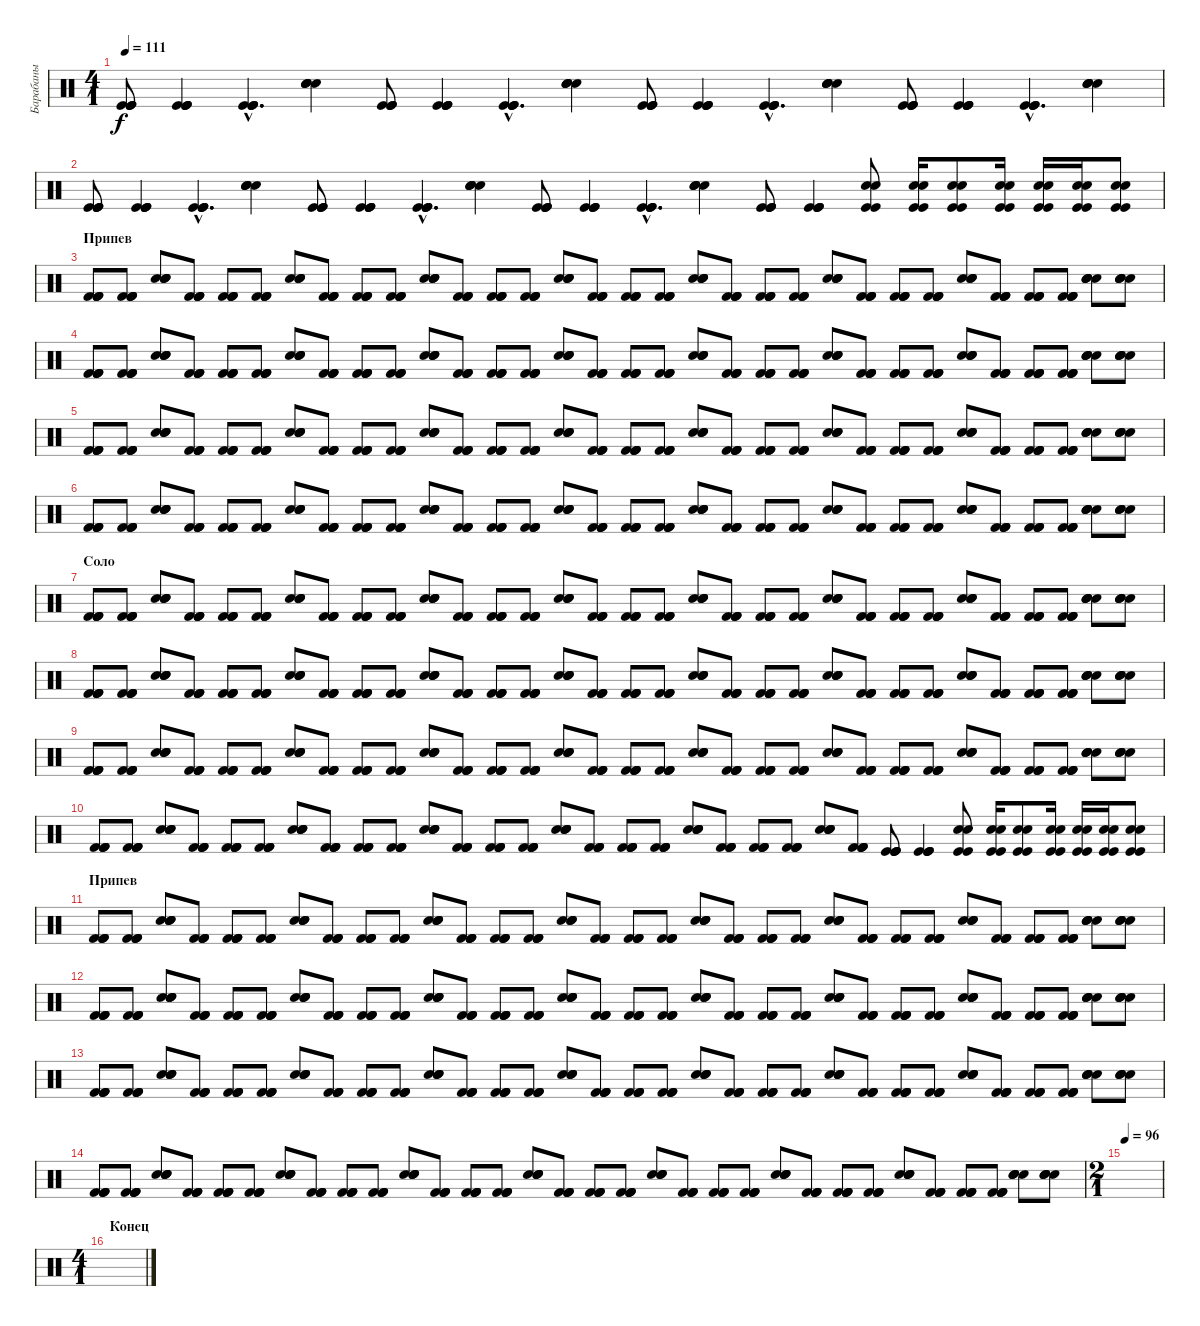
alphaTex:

\track ("Барабаны" "Барабаны") {instrument percussion}
\staff {score}
\articulation defaults
\ts (4 1)
\tempo 111
\clef neutral
\ks c
("Kick (hit)" "Kick (hit)" "Kick (hit)" "Kick (hit)").8{dy f} ("Kick (hit)" "Kick (hit)" "Kick (hit)" "Kick (hit)").4 ("Kick (hit)"{hac} "Kick (hit)"{hac} "Kick (hit)"{hac} "Kick (hit)"{hac}).4{d} ("Snare (hit) 2" "Snare (hit) 2" "Snare (hit) 2" "Snare (hit) 2").4 ("Kick (hit)" "Kick (hit)" "Kick (hit)" "Kick (hit)").8 ("Kick (hit)" "Kick (hit)" "Kick (hit)" "Kick (hit)").4 ("Kick (hit)"{hac} "Kick (hit)"{hac} "Kick (hit)"{hac} "Kick (hit)"{hac}).4{d} ("Snare (hit) 2" "Snare (hit) 2" "Snare (hit) 2" "Snare (hit) 2").4 ("Kick (hit)" "Kick (hit)" "Kick (hit)" "Kick (hit)").8 ("Kick (hit)" "Kick (hit)" "Kick (hit)" "Kick (hit)").4 ("Kick (hit)"{hac} "Kick (hit)"{hac} "Kick (hit)"{hac} "Kick (hit)"{hac}).4{d} ("Snare (hit) 2" "Snare (hit) 2" "Snare (hit) 2" "Snare (hit) 2").4 ("Kick (hit)" "Kick (hit)" "Kick (hit)" "Kick (hit)").8 ("Kick (hit)" "Kick (hit)" "Kick (hit)" "Kick (hit)").4 ("Kick (hit)"{hac} "Kick (hit)"{hac} "Kick (hit)"{hac} "Kick (hit)"{hac}).4{d} ("Snare (hit) 2" "Snare (hit) 2" "Snare (hit) 2" "Snare (hit) 2").4 |
("Kick (hit)" "Kick (hit)" "Kick (hit)" "Kick (hit)").8 ("Kick (hit)" "Kick (hit)" "Kick (hit)" "Kick (hit)").4 ("Kick (hit)"{hac} "Kick (hit)"{hac} "Kick (hit)"{hac} "Kick (hit)"{hac}).4{d} ("Snare (hit) 2" "Snare (hit) 2" "Snare (hit) 2" "Snare (hit) 2").4 ("Kick (hit)" "Kick (hit)" "Kick (hit)" "Kick (hit)").8 ("Kick (hit)" "Kick (hit)" "Kick (hit)" "Kick (hit)").4 ("Kick (hit)"{hac} "Kick (hit)"{hac} "Kick (hit)"{hac} "Kick (hit)"{hac}).4{d} ("Snare (hit) 2" "Snare (hit) 2" "Snare (hit) 2" "Snare (hit) 2").4 ("Kick (hit)" "Kick (hit)" "Kick (hit)" "Kick (hit)").8 ("Kick (hit)" "Kick (hit)" "Kick (hit)" "Kick (hit)").4 ("Kick (hit)"{hac} "Kick (hit)"{hac} "Kick (hit)"{hac} "Kick (hit)"{hac}).4{d} ("Snare (hit) 2" "Snare (hit) 2" "Snare (hit) 2" "Snare (hit) 2").4 ("Kick (hit)" "Kick (hit)" "Kick (hit)" "Kick (hit)").8 ("Kick (hit)" "Kick (hit)" "Kick (hit)" "Kick (hit)").4 ("Kick (hit)" "Kick (hit)" "Snare (hit) 2" "Snare (hit) 2").8 ("Kick (hit)" "Kick (hit)" "Snare (hit) 2" "Snare (hit) 2").16 ("Kick (hit)" "Kick (hit)" "Snare (hit) 2" "Snare (hit) 2").8 ("Kick (hit)" "Kick (hit)" "Snare (hit) 2" "Snare (hit) 2").16 ("Kick (hit)" "Kick (hit)" "Snare (hit) 2" "Snare (hit) 2").16 ("Kick (hit)" "Kick (hit)" "Snare (hit) 2" "Snare (hit) 2").16 ("Kick (hit)" "Kick (hit)" "Snare (hit) 2" "Snare (hit) 2").8 |
\section ("" "Припев")
("Kick (hit) 2" "Kick (hit) 2" "Kick (hit) 2" "Kick (hit) 2").8 ("Kick (hit) 2" "Kick (hit) 2" "Kick (hit) 2" "Kick (hit) 2").8 ("Snare (hit) 2" "Snare (hit) 2" "Snare (hit) 2" "Snare (hit) 2").8 ("Kick (hit) 2" "Kick (hit) 2" "Kick (hit) 2" "Kick (hit) 2").8 ("Kick (hit) 2" "Kick (hit) 2" "Kick (hit) 2" "Kick (hit) 2").8 ("Kick (hit) 2" "Kick (hit) 2" "Kick (hit) 2" "Kick (hit) 2").8 ("Snare (hit) 2" "Snare (hit) 2" "Snare (hit) 2" "Snare (hit) 2").8 ("Kick (hit) 2" "Kick (hit) 2" "Kick (hit) 2" "Kick (hit) 2").8 ("Kick (hit) 2" "Kick (hit) 2" "Kick (hit) 2" "Kick (hit) 2").8 ("Kick (hit) 2" "Kick (hit) 2" "Kick (hit) 2" "Kick (hit) 2").8 ("Snare (hit) 2" "Snare (hit) 2" "Snare (hit) 2" "Snare (hit) 2").8 ("Kick (hit) 2" "Kick (hit) 2" "Kick (hit) 2" "Kick (hit) 2").8 ("Kick (hit) 2" "Kick (hit) 2" "Kick (hit) 2" "Kick (hit) 2").8 ("Kick (hit) 2" "Kick (hit) 2" "Kick (hit) 2" "Kick (hit) 2").8 ("Snare (hit) 2" "Snare (hit) 2" "Snare (hit) 2" "Snare (hit) 2").8 ("Kick (hit) 2" "Kick (hit) 2" "Kick (hit) 2" "Kick (hit) 2").8 ("Kick (hit) 2" "Kick (hit) 2" "Kick (hit) 2" "Kick (hit) 2").8 ("Kick (hit) 2" "Kick (hit) 2" "Kick (hit) 2" "Kick (hit) 2").8 ("Snare (hit) 2" "Snare (hit) 2" "Snare (hit) 2" "Snare (hit) 2").8 ("Kick (hit) 2" "Kick (hit) 2" "Kick (hit) 2" "Kick (hit) 2").8 ("Kick (hit) 2" "Kick (hit) 2" "Kick (hit) 2" "Kick (hit) 2").8 ("Kick (hit) 2" "Kick (hit) 2" "Kick (hit) 2" "Kick (hit) 2").8 ("Snare (hit) 2" "Snare (hit) 2" "Snare (hit) 2" "Snare (hit) 2").8 ("Kick (hit) 2" "Kick (hit) 2" "Kick (hit) 2" "Kick (hit) 2").8 ("Kick (hit) 2" "Kick (hit) 2" "Kick (hit) 2" "Kick (hit) 2").8 ("Kick (hit) 2" "Kick (hit) 2" "Kick (hit) 2" "Kick (hit) 2").8 ("Snare (hit) 2" "Snare (hit) 2" "Snare (hit) 2" "Snare (hit) 2").8 ("Kick (hit) 2" "Kick (hit) 2" "Kick (hit) 2" "Kick (hit) 2").8 ("Kick (hit) 2" "Kick (hit) 2" "Kick (hit) 2" "Kick (hit) 2").8 ("Kick (hit) 2" "Kick (hit) 2" "Kick (hit) 2" "Kick (hit) 2").8 ("Snare (hit) 2" "Snare (hit) 2" "Snare (hit) 2" "Snare (hit) 2").8 ("Snare (hit) 2" "Snare (hit) 2" "Snare (hit) 2" "Snare (hit) 2").8 |
("Kick (hit) 2" "Kick (hit) 2" "Kick (hit) 2" "Kick (hit) 2").8 ("Kick (hit) 2" "Kick (hit) 2" "Kick (hit) 2" "Kick (hit) 2").8 ("Snare (hit) 2" "Snare (hit) 2" "Snare (hit) 2" "Snare (hit) 2").8 ("Kick (hit) 2" "Kick (hit) 2" "Kick (hit) 2" "Kick (hit) 2").8 ("Kick (hit) 2" "Kick (hit) 2" "Kick (hit) 2" "Kick (hit) 2").8 ("Kick (hit) 2" "Kick (hit) 2" "Kick (hit) 2" "Kick (hit) 2").8 ("Snare (hit) 2" "Snare (hit) 2" "Snare (hit) 2" "Snare (hit) 2").8 ("Kick (hit) 2" "Kick (hit) 2" "Kick (hit) 2" "Kick (hit) 2").8 ("Kick (hit) 2" "Kick (hit) 2" "Kick (hit) 2" "Kick (hit) 2").8 ("Kick (hit) 2" "Kick (hit) 2" "Kick (hit) 2" "Kick (hit) 2").8 ("Snare (hit) 2" "Snare (hit) 2" "Snare (hit) 2" "Snare (hit) 2").8 ("Kick (hit) 2" "Kick (hit) 2" "Kick (hit) 2" "Kick (hit) 2").8 ("Kick (hit) 2" "Kick (hit) 2" "Kick (hit) 2" "Kick (hit) 2").8 ("Kick (hit) 2" "Kick (hit) 2" "Kick (hit) 2" "Kick (hit) 2").8 ("Snare (hit) 2" "Snare (hit) 2" "Snare (hit) 2" "Snare (hit) 2").8 ("Kick (hit) 2" "Kick (hit) 2" "Kick (hit) 2" "Kick (hit) 2").8 ("Kick (hit) 2" "Kick (hit) 2" "Kick (hit) 2" "Kick (hit) 2").8 ("Kick (hit) 2" "Kick (hit) 2" "Kick (hit) 2" "Kick (hit) 2").8 ("Snare (hit) 2" "Snare (hit) 2" "Snare (hit) 2" "Snare (hit) 2").8 ("Kick (hit) 2" "Kick (hit) 2" "Kick (hit) 2" "Kick (hit) 2").8 ("Kick (hit) 2" "Kick (hit) 2" "Kick (hit) 2" "Kick (hit) 2").8 ("Kick (hit) 2" "Kick (hit) 2" "Kick (hit) 2" "Kick (hit) 2").8 ("Snare (hit) 2" "Snare (hit) 2" "Snare (hit) 2" "Snare (hit) 2").8 ("Kick (hit) 2" "Kick (hit) 2" "Kick (hit) 2" "Kick (hit) 2").8 ("Kick (hit) 2" "Kick (hit) 2" "Kick (hit) 2" "Kick (hit) 2").8 ("Kick (hit) 2" "Kick (hit) 2" "Kick (hit) 2" "Kick (hit) 2").8 ("Snare (hit) 2" "Snare (hit) 2" "Snare (hit) 2" "Snare (hit) 2").8 ("Kick (hit) 2" "Kick (hit) 2" "Kick (hit) 2" "Kick (hit) 2").8 ("Kick (hit) 2" "Kick (hit) 2" "Kick (hit) 2" "Kick (hit) 2").8 ("Kick (hit) 2" "Kick (hit) 2" "Kick (hit) 2" "Kick (hit) 2").8 ("Snare (hit) 2" "Snare (hit) 2" "Snare (hit) 2" "Snare (hit) 2").8 ("Snare (hit) 2" "Snare (hit) 2" "Snare (hit) 2" "Snare (hit) 2").8 |
("Kick (hit) 2" "Kick (hit) 2" "Kick (hit) 2" "Kick (hit) 2").8 ("Kick (hit) 2" "Kick (hit) 2" "Kick (hit) 2" "Kick (hit) 2").8 ("Snare (hit) 2" "Snare (hit) 2" "Snare (hit) 2" "Snare (hit) 2").8 ("Kick (hit) 2" "Kick (hit) 2" "Kick (hit) 2" "Kick (hit) 2").8 ("Kick (hit) 2" "Kick (hit) 2" "Kick (hit) 2" "Kick (hit) 2").8 ("Kick (hit) 2" "Kick (hit) 2" "Kick (hit) 2" "Kick (hit) 2").8 ("Snare (hit) 2" "Snare (hit) 2" "Snare (hit) 2" "Snare (hit) 2").8 ("Kick (hit) 2" "Kick (hit) 2" "Kick (hit) 2" "Kick (hit) 2").8 ("Kick (hit) 2" "Kick (hit) 2" "Kick (hit) 2" "Kick (hit) 2").8 ("Kick (hit) 2" "Kick (hit) 2" "Kick (hit) 2" "Kick (hit) 2").8 ("Snare (hit) 2" "Snare (hit) 2" "Snare (hit) 2" "Snare (hit) 2").8 ("Kick (hit) 2" "Kick (hit) 2" "Kick (hit) 2" "Kick (hit) 2").8 ("Kick (hit) 2" "Kick (hit) 2" "Kick (hit) 2" "Kick (hit) 2").8 ("Kick (hit) 2" "Kick (hit) 2" "Kick (hit) 2" "Kick (hit) 2").8 ("Snare (hit) 2" "Snare (hit) 2" "Snare (hit) 2" "Snare (hit) 2").8 ("Kick (hit) 2" "Kick (hit) 2" "Kick (hit) 2" "Kick (hit) 2").8 ("Kick (hit) 2" "Kick (hit) 2" "Kick (hit) 2" "Kick (hit) 2").8 ("Kick (hit) 2" "Kick (hit) 2" "Kick (hit) 2" "Kick (hit) 2").8 ("Snare (hit) 2" "Snare (hit) 2" "Snare (hit) 2" "Snare (hit) 2").8 ("Kick (hit) 2" "Kick (hit) 2" "Kick (hit) 2" "Kick (hit) 2").8 ("Kick (hit) 2" "Kick (hit) 2" "Kick (hit) 2" "Kick (hit) 2").8 ("Kick (hit) 2" "Kick (hit) 2" "Kick (hit) 2" "Kick (hit) 2").8 ("Snare (hit) 2" "Snare (hit) 2" "Snare (hit) 2" "Snare (hit) 2").8 ("Kick (hit) 2" "Kick (hit) 2" "Kick (hit) 2" "Kick (hit) 2").8 ("Kick (hit) 2" "Kick (hit) 2" "Kick (hit) 2" "Kick (hit) 2").8 ("Kick (hit) 2" "Kick (hit) 2" "Kick (hit) 2" "Kick (hit) 2").8 ("Snare (hit) 2" "Snare (hit) 2" "Snare (hit) 2" "Snare (hit) 2").8 ("Kick (hit) 2" "Kick (hit) 2" "Kick (hit) 2" "Kick (hit) 2").8 ("Kick (hit) 2" "Kick (hit) 2" "Kick (hit) 2" "Kick (hit) 2").8 ("Kick (hit) 2" "Kick (hit) 2" "Kick (hit) 2" "Kick (hit) 2").8 ("Snare (hit) 2" "Snare (hit) 2" "Snare (hit) 2" "Snare (hit) 2").8 ("Snare (hit) 2" "Snare (hit) 2" "Snare (hit) 2" "Snare (hit) 2").8 |
("Kick (hit) 2" "Kick (hit) 2" "Kick (hit) 2" "Kick (hit) 2").8 ("Kick (hit) 2" "Kick (hit) 2" "Kick (hit) 2" "Kick (hit) 2").8 ("Snare (hit) 2" "Snare (hit) 2" "Snare (hit) 2" "Snare (hit) 2").8 ("Kick (hit) 2" "Kick (hit) 2" "Kick (hit) 2" "Kick (hit) 2").8 ("Kick (hit) 2" "Kick (hit) 2" "Kick (hit) 2" "Kick (hit) 2").8 ("Kick (hit) 2" "Kick (hit) 2" "Kick (hit) 2" "Kick (hit) 2").8 ("Snare (hit) 2" "Snare (hit) 2" "Snare (hit) 2" "Snare (hit) 2").8 ("Kick (hit) 2" "Kick (hit) 2" "Kick (hit) 2" "Kick (hit) 2").8 ("Kick (hit) 2" "Kick (hit) 2" "Kick (hit) 2" "Kick (hit) 2").8 ("Kick (hit) 2" "Kick (hit) 2" "Kick (hit) 2" "Kick (hit) 2").8 ("Snare (hit) 2" "Snare (hit) 2" "Snare (hit) 2" "Snare (hit) 2").8 ("Kick (hit) 2" "Kick (hit) 2" "Kick (hit) 2" "Kick (hit) 2").8 ("Kick (hit) 2" "Kick (hit) 2" "Kick (hit) 2" "Kick (hit) 2").8 ("Kick (hit) 2" "Kick (hit) 2" "Kick (hit) 2" "Kick (hit) 2").8 ("Snare (hit) 2" "Snare (hit) 2" "Snare (hit) 2" "Snare (hit) 2").8 ("Kick (hit) 2" "Kick (hit) 2" "Kick (hit) 2" "Kick (hit) 2").8 ("Kick (hit) 2" "Kick (hit) 2" "Kick (hit) 2" "Kick (hit) 2").8 ("Kick (hit) 2" "Kick (hit) 2" "Kick (hit) 2" "Kick (hit) 2").8 ("Snare (hit) 2" "Snare (hit) 2" "Snare (hit) 2" "Snare (hit) 2").8 ("Kick (hit) 2" "Kick (hit) 2" "Kick (hit) 2" "Kick (hit) 2").8 ("Kick (hit) 2" "Kick (hit) 2" "Kick (hit) 2" "Kick (hit) 2").8 ("Kick (hit) 2" "Kick (hit) 2" "Kick (hit) 2" "Kick (hit) 2").8 ("Snare (hit) 2" "Snare (hit) 2" "Snare (hit) 2" "Snare (hit) 2").8 ("Kick (hit) 2" "Kick (hit) 2" "Kick (hit) 2" "Kick (hit) 2").8 ("Kick (hit) 2" "Kick (hit) 2" "Kick (hit) 2" "Kick (hit) 2").8 ("Kick (hit) 2" "Kick (hit) 2" "Kick (hit) 2" "Kick (hit) 2").8 ("Snare (hit) 2" "Snare (hit) 2" "Snare (hit) 2" "Snare (hit) 2").8 ("Kick (hit) 2" "Kick (hit) 2" "Kick (hit) 2" "Kick (hit) 2").8 ("Kick (hit) 2" "Kick (hit) 2" "Kick (hit) 2" "Kick (hit) 2").8 ("Kick (hit) 2" "Kick (hit) 2" "Kick (hit) 2" "Kick (hit) 2").8 ("Snare (hit) 2" "Snare (hit) 2" "Snare (hit) 2" "Snare (hit) 2").8 ("Snare (hit) 2" "Snare (hit) 2" "Snare (hit) 2" "Snare (hit) 2").8 |
\section ("" "Соло")
("Kick (hit) 2" "Kick (hit) 2" "Kick (hit) 2" "Kick (hit) 2").8 ("Kick (hit) 2" "Kick (hit) 2" "Kick (hit) 2" "Kick (hit) 2").8 ("Snare (hit) 2" "Snare (hit) 2" "Snare (hit) 2" "Snare (hit) 2").8 ("Kick (hit) 2" "Kick (hit) 2" "Kick (hit) 2" "Kick (hit) 2").8 ("Kick (hit) 2" "Kick (hit) 2" "Kick (hit) 2" "Kick (hit) 2").8 ("Kick (hit) 2" "Kick (hit) 2" "Kick (hit) 2" "Kick (hit) 2").8 ("Snare (hit) 2" "Snare (hit) 2" "Snare (hit) 2" "Snare (hit) 2").8 ("Kick (hit) 2" "Kick (hit) 2" "Kick (hit) 2" "Kick (hit) 2").8 ("Kick (hit) 2" "Kick (hit) 2" "Kick (hit) 2" "Kick (hit) 2").8 ("Kick (hit) 2" "Kick (hit) 2" "Kick (hit) 2" "Kick (hit) 2").8 ("Snare (hit) 2" "Snare (hit) 2" "Snare (hit) 2" "Snare (hit) 2").8 ("Kick (hit) 2" "Kick (hit) 2" "Kick (hit) 2" "Kick (hit) 2").8 ("Kick (hit) 2" "Kick (hit) 2" "Kick (hit) 2" "Kick (hit) 2").8 ("Kick (hit) 2" "Kick (hit) 2" "Kick (hit) 2" "Kick (hit) 2").8 ("Snare (hit) 2" "Snare (hit) 2" "Snare (hit) 2" "Snare (hit) 2").8 ("Kick (hit) 2" "Kick (hit) 2" "Kick (hit) 2" "Kick (hit) 2").8 ("Kick (hit) 2" "Kick (hit) 2" "Kick (hit) 2" "Kick (hit) 2").8 ("Kick (hit) 2" "Kick (hit) 2" "Kick (hit) 2" "Kick (hit) 2").8 ("Snare (hit) 2" "Snare (hit) 2" "Snare (hit) 2" "Snare (hit) 2").8 ("Kick (hit) 2" "Kick (hit) 2" "Kick (hit) 2" "Kick (hit) 2").8 ("Kick (hit) 2" "Kick (hit) 2" "Kick (hit) 2" "Kick (hit) 2").8 ("Kick (hit) 2" "Kick (hit) 2" "Kick (hit) 2" "Kick (hit) 2").8 ("Snare (hit) 2" "Snare (hit) 2" "Snare (hit) 2" "Snare (hit) 2").8 ("Kick (hit) 2" "Kick (hit) 2" "Kick (hit) 2" "Kick (hit) 2").8 ("Kick (hit) 2" "Kick (hit) 2" "Kick (hit) 2" "Kick (hit) 2").8 ("Kick (hit) 2" "Kick (hit) 2" "Kick (hit) 2" "Kick (hit) 2").8 ("Snare (hit) 2" "Snare (hit) 2" "Snare (hit) 2" "Snare (hit) 2").8 ("Kick (hit) 2" "Kick (hit) 2" "Kick (hit) 2" "Kick (hit) 2").8 ("Kick (hit) 2" "Kick (hit) 2" "Kick (hit) 2" "Kick (hit) 2").8 ("Kick (hit) 2" "Kick (hit) 2" "Kick (hit) 2" "Kick (hit) 2").8 ("Snare (hit) 2" "Snare (hit) 2" "Snare (hit) 2" "Snare (hit) 2").8 ("Snare (hit) 2" "Snare (hit) 2" "Snare (hit) 2" "Snare (hit) 2").8 |
("Kick (hit) 2" "Kick (hit) 2" "Kick (hit) 2" "Kick (hit) 2").8 ("Kick (hit) 2" "Kick (hit) 2" "Kick (hit) 2" "Kick (hit) 2").8 ("Snare (hit) 2" "Snare (hit) 2" "Snare (hit) 2" "Snare (hit) 2").8 ("Kick (hit) 2" "Kick (hit) 2" "Kick (hit) 2" "Kick (hit) 2").8 ("Kick (hit) 2" "Kick (hit) 2" "Kick (hit) 2" "Kick (hit) 2").8 ("Kick (hit) 2" "Kick (hit) 2" "Kick (hit) 2" "Kick (hit) 2").8 ("Snare (hit) 2" "Snare (hit) 2" "Snare (hit) 2" "Snare (hit) 2").8 ("Kick (hit) 2" "Kick (hit) 2" "Kick (hit) 2" "Kick (hit) 2").8 ("Kick (hit) 2" "Kick (hit) 2" "Kick (hit) 2" "Kick (hit) 2").8 ("Kick (hit) 2" "Kick (hit) 2" "Kick (hit) 2" "Kick (hit) 2").8 ("Snare (hit) 2" "Snare (hit) 2" "Snare (hit) 2" "Snare (hit) 2").8 ("Kick (hit) 2" "Kick (hit) 2" "Kick (hit) 2" "Kick (hit) 2").8 ("Kick (hit) 2" "Kick (hit) 2" "Kick (hit) 2" "Kick (hit) 2").8 ("Kick (hit) 2" "Kick (hit) 2" "Kick (hit) 2" "Kick (hit) 2").8 ("Snare (hit) 2" "Snare (hit) 2" "Snare (hit) 2" "Snare (hit) 2").8 ("Kick (hit) 2" "Kick (hit) 2" "Kick (hit) 2" "Kick (hit) 2").8 ("Kick (hit) 2" "Kick (hit) 2" "Kick (hit) 2" "Kick (hit) 2").8 ("Kick (hit) 2" "Kick (hit) 2" "Kick (hit) 2" "Kick (hit) 2").8 ("Snare (hit) 2" "Snare (hit) 2" "Snare (hit) 2" "Snare (hit) 2").8 ("Kick (hit) 2" "Kick (hit) 2" "Kick (hit) 2" "Kick (hit) 2").8 ("Kick (hit) 2" "Kick (hit) 2" "Kick (hit) 2" "Kick (hit) 2").8 ("Kick (hit) 2" "Kick (hit) 2" "Kick (hit) 2" "Kick (hit) 2").8 ("Snare (hit) 2" "Snare (hit) 2" "Snare (hit) 2" "Snare (hit) 2").8 ("Kick (hit) 2" "Kick (hit) 2" "Kick (hit) 2" "Kick (hit) 2").8 ("Kick (hit) 2" "Kick (hit) 2" "Kick (hit) 2" "Kick (hit) 2").8 ("Kick (hit) 2" "Kick (hit) 2" "Kick (hit) 2" "Kick (hit) 2").8 ("Snare (hit) 2" "Snare (hit) 2" "Snare (hit) 2" "Snare (hit) 2").8 ("Kick (hit) 2" "Kick (hit) 2" "Kick (hit) 2" "Kick (hit) 2").8 ("Kick (hit) 2" "Kick (hit) 2" "Kick (hit) 2" "Kick (hit) 2").8 ("Kick (hit) 2" "Kick (hit) 2" "Kick (hit) 2" "Kick (hit) 2").8 ("Snare (hit) 2" "Snare (hit) 2" "Snare (hit) 2" "Snare (hit) 2").8 ("Snare (hit) 2" "Snare (hit) 2" "Snare (hit) 2" "Snare (hit) 2").8 |
("Kick (hit) 2" "Kick (hit) 2" "Kick (hit) 2" "Kick (hit) 2").8 ("Kick (hit) 2" "Kick (hit) 2" "Kick (hit) 2" "Kick (hit) 2").8 ("Snare (hit) 2" "Snare (hit) 2" "Snare (hit) 2" "Snare (hit) 2").8 ("Kick (hit) 2" "Kick (hit) 2" "Kick (hit) 2" "Kick (hit) 2").8 ("Kick (hit) 2" "Kick (hit) 2" "Kick (hit) 2" "Kick (hit) 2").8 ("Kick (hit) 2" "Kick (hit) 2" "Kick (hit) 2" "Kick (hit) 2").8 ("Snare (hit) 2" "Snare (hit) 2" "Snare (hit) 2" "Snare (hit) 2").8 ("Kick (hit) 2" "Kick (hit) 2" "Kick (hit) 2" "Kick (hit) 2").8 ("Kick (hit) 2" "Kick (hit) 2" "Kick (hit) 2" "Kick (hit) 2").8 ("Kick (hit) 2" "Kick (hit) 2" "Kick (hit) 2" "Kick (hit) 2").8 ("Snare (hit) 2" "Snare (hit) 2" "Snare (hit) 2" "Snare (hit) 2").8 ("Kick (hit) 2" "Kick (hit) 2" "Kick (hit) 2" "Kick (hit) 2").8 ("Kick (hit) 2" "Kick (hit) 2" "Kick (hit) 2" "Kick (hit) 2").8 ("Kick (hit) 2" "Kick (hit) 2" "Kick (hit) 2" "Kick (hit) 2").8 ("Snare (hit) 2" "Snare (hit) 2" "Snare (hit) 2" "Snare (hit) 2").8 ("Kick (hit) 2" "Kick (hit) 2" "Kick (hit) 2" "Kick (hit) 2").8 ("Kick (hit) 2" "Kick (hit) 2" "Kick (hit) 2" "Kick (hit) 2").8 ("Kick (hit) 2" "Kick (hit) 2" "Kick (hit) 2" "Kick (hit) 2").8 ("Snare (hit) 2" "Snare (hit) 2" "Snare (hit) 2" "Snare (hit) 2").8 ("Kick (hit) 2" "Kick (hit) 2" "Kick (hit) 2" "Kick (hit) 2").8 ("Kick (hit) 2" "Kick (hit) 2" "Kick (hit) 2" "Kick (hit) 2").8 ("Kick (hit) 2" "Kick (hit) 2" "Kick (hit) 2" "Kick (hit) 2").8 ("Snare (hit) 2" "Snare (hit) 2" "Snare (hit) 2" "Snare (hit) 2").8 ("Kick (hit) 2" "Kick (hit) 2" "Kick (hit) 2" "Kick (hit) 2").8 ("Kick (hit) 2" "Kick (hit) 2" "Kick (hit) 2" "Kick (hit) 2").8 ("Kick (hit) 2" "Kick (hit) 2" "Kick (hit) 2" "Kick (hit) 2").8 ("Snare (hit) 2" "Snare (hit) 2" "Snare (hit) 2" "Snare (hit) 2").8 ("Kick (hit) 2" "Kick (hit) 2" "Kick (hit) 2" "Kick (hit) 2").8 ("Kick (hit) 2" "Kick (hit) 2" "Kick (hit) 2" "Kick (hit) 2").8 ("Kick (hit) 2" "Kick (hit) 2" "Kick (hit) 2" "Kick (hit) 2").8 ("Snare (hit) 2" "Snare (hit) 2" "Snare (hit) 2" "Snare (hit) 2").8 ("Snare (hit) 2" "Snare (hit) 2" "Snare (hit) 2" "Snare (hit) 2").8 |
("Kick (hit) 2" "Kick (hit) 2" "Kick (hit) 2" "Kick (hit) 2").8 ("Kick (hit) 2" "Kick (hit) 2" "Kick (hit) 2" "Kick (hit) 2").8 ("Snare (hit) 2" "Snare (hit) 2" "Snare (hit) 2" "Snare (hit) 2").8 ("Kick (hit) 2" "Kick (hit) 2" "Kick (hit) 2" "Kick (hit) 2").8 ("Kick (hit) 2" "Kick (hit) 2" "Kick (hit) 2" "Kick (hit) 2").8 ("Kick (hit) 2" "Kick (hit) 2" "Kick (hit) 2" "Kick (hit) 2").8 ("Snare (hit) 2" "Snare (hit) 2" "Snare (hit) 2" "Snare (hit) 2").8 ("Kick (hit) 2" "Kick (hit) 2" "Kick (hit) 2" "Kick (hit) 2").8 ("Kick (hit) 2" "Kick (hit) 2" "Kick (hit) 2" "Kick (hit) 2").8 ("Kick (hit) 2" "Kick (hit) 2" "Kick (hit) 2" "Kick (hit) 2").8 ("Snare (hit) 2" "Snare (hit) 2" "Snare (hit) 2" "Snare (hit) 2").8 ("Kick (hit) 2" "Kick (hit) 2" "Kick (hit) 2" "Kick (hit) 2").8 ("Kick (hit) 2" "Kick (hit) 2" "Kick (hit) 2" "Kick (hit) 2").8 ("Kick (hit) 2" "Kick (hit) 2" "Kick (hit) 2" "Kick (hit) 2").8 ("Snare (hit) 2" "Snare (hit) 2" "Snare (hit) 2" "Snare (hit) 2").8 ("Kick (hit) 2" "Kick (hit) 2" "Kick (hit) 2" "Kick (hit) 2").8 ("Kick (hit) 2" "Kick (hit) 2" "Kick (hit) 2" "Kick (hit) 2").8 ("Kick (hit) 2" "Kick (hit) 2" "Kick (hit) 2" "Kick (hit) 2").8 ("Snare (hit) 2" "Snare (hit) 2" "Snare (hit) 2" "Snare (hit) 2").8 ("Kick (hit) 2" "Kick (hit) 2" "Kick (hit) 2" "Kick (hit) 2").8 ("Kick (hit) 2" "Kick (hit) 2" "Kick (hit) 2" "Kick (hit) 2").8 ("Kick (hit) 2" "Kick (hit) 2" "Kick (hit) 2" "Kick (hit) 2").8 ("Snare (hit) 2" "Snare (hit) 2" "Snare (hit) 2" "Snare (hit) 2").8 ("Kick (hit) 2" "Kick (hit) 2" "Kick (hit) 2" "Kick (hit) 2").8 ("Kick (hit)" "Kick (hit)" "Kick (hit)" "Kick (hit)").8 ("Kick (hit)" "Kick (hit)" "Kick (hit)" "Kick (hit)").4 ("Kick (hit)" "Kick (hit)" "Snare (hit) 2" "Snare (hit) 2").8 ("Kick (hit)" "Kick (hit)" "Snare (hit) 2" "Snare (hit) 2").16 ("Kick (hit)" "Kick (hit)" "Snare (hit) 2" "Snare (hit) 2").8 ("Kick (hit)" "Kick (hit)" "Snare (hit) 2" "Snare (hit) 2").16 ("Kick (hit)" "Kick (hit)" "Snare (hit) 2" "Snare (hit) 2").16 ("Kick (hit)" "Kick (hit)" "Snare (hit) 2" "Snare (hit) 2").16 ("Kick (hit)" "Kick (hit)" "Snare (hit) 2" "Snare (hit) 2").8 |
\section ("" "Припев")
("Kick (hit) 2" "Kick (hit) 2" "Kick (hit) 2" "Kick (hit) 2").8 ("Kick (hit) 2" "Kick (hit) 2" "Kick (hit) 2" "Kick (hit) 2").8 ("Snare (hit) 2" "Snare (hit) 2" "Snare (hit) 2" "Snare (hit) 2").8 ("Kick (hit) 2" "Kick (hit) 2" "Kick (hit) 2" "Kick (hit) 2").8 ("Kick (hit) 2" "Kick (hit) 2" "Kick (hit) 2" "Kick (hit) 2").8 ("Kick (hit) 2" "Kick (hit) 2" "Kick (hit) 2" "Kick (hit) 2").8 ("Snare (hit) 2" "Snare (hit) 2" "Snare (hit) 2" "Snare (hit) 2").8 ("Kick (hit) 2" "Kick (hit) 2" "Kick (hit) 2" "Kick (hit) 2").8 ("Kick (hit) 2" "Kick (hit) 2" "Kick (hit) 2" "Kick (hit) 2").8 ("Kick (hit) 2" "Kick (hit) 2" "Kick (hit) 2" "Kick (hit) 2").8 ("Snare (hit) 2" "Snare (hit) 2" "Snare (hit) 2" "Snare (hit) 2").8 ("Kick (hit) 2" "Kick (hit) 2" "Kick (hit) 2" "Kick (hit) 2").8 ("Kick (hit) 2" "Kick (hit) 2" "Kick (hit) 2" "Kick (hit) 2").8 ("Kick (hit) 2" "Kick (hit) 2" "Kick (hit) 2" "Kick (hit) 2").8 ("Snare (hit) 2" "Snare (hit) 2" "Snare (hit) 2" "Snare (hit) 2").8 ("Kick (hit) 2" "Kick (hit) 2" "Kick (hit) 2" "Kick (hit) 2").8 ("Kick (hit) 2" "Kick (hit) 2" "Kick (hit) 2" "Kick (hit) 2").8 ("Kick (hit) 2" "Kick (hit) 2" "Kick (hit) 2" "Kick (hit) 2").8 ("Snare (hit) 2" "Snare (hit) 2" "Snare (hit) 2" "Snare (hit) 2").8 ("Kick (hit) 2" "Kick (hit) 2" "Kick (hit) 2" "Kick (hit) 2").8 ("Kick (hit) 2" "Kick (hit) 2" "Kick (hit) 2" "Kick (hit) 2").8 ("Kick (hit) 2" "Kick (hit) 2" "Kick (hit) 2" "Kick (hit) 2").8 ("Snare (hit) 2" "Snare (hit) 2" "Snare (hit) 2" "Snare (hit) 2").8 ("Kick (hit) 2" "Kick (hit) 2" "Kick (hit) 2" "Kick (hit) 2").8 ("Kick (hit) 2" "Kick (hit) 2" "Kick (hit) 2" "Kick (hit) 2").8 ("Kick (hit) 2" "Kick (hit) 2" "Kick (hit) 2" "Kick (hit) 2").8 ("Snare (hit) 2" "Snare (hit) 2" "Snare (hit) 2" "Snare (hit) 2").8 ("Kick (hit) 2" "Kick (hit) 2" "Kick (hit) 2" "Kick (hit) 2").8 ("Kick (hit) 2" "Kick (hit) 2" "Kick (hit) 2" "Kick (hit) 2").8 ("Kick (hit) 2" "Kick (hit) 2" "Kick (hit) 2" "Kick (hit) 2").8 ("Snare (hit) 2" "Snare (hit) 2" "Snare (hit) 2" "Snare (hit) 2").8 ("Snare (hit) 2" "Snare (hit) 2" "Snare (hit) 2" "Snare (hit) 2").8 |
("Kick (hit) 2" "Kick (hit) 2" "Kick (hit) 2" "Kick (hit) 2").8 ("Kick (hit) 2" "Kick (hit) 2" "Kick (hit) 2" "Kick (hit) 2").8 ("Snare (hit) 2" "Snare (hit) 2" "Snare (hit) 2" "Snare (hit) 2").8 ("Kick (hit) 2" "Kick (hit) 2" "Kick (hit) 2" "Kick (hit) 2").8 ("Kick (hit) 2" "Kick (hit) 2" "Kick (hit) 2" "Kick (hit) 2").8 ("Kick (hit) 2" "Kick (hit) 2" "Kick (hit) 2" "Kick (hit) 2").8 ("Snare (hit) 2" "Snare (hit) 2" "Snare (hit) 2" "Snare (hit) 2").8 ("Kick (hit) 2" "Kick (hit) 2" "Kick (hit) 2" "Kick (hit) 2").8 ("Kick (hit) 2" "Kick (hit) 2" "Kick (hit) 2" "Kick (hit) 2").8 ("Kick (hit) 2" "Kick (hit) 2" "Kick (hit) 2" "Kick (hit) 2").8 ("Snare (hit) 2" "Snare (hit) 2" "Snare (hit) 2" "Snare (hit) 2").8 ("Kick (hit) 2" "Kick (hit) 2" "Kick (hit) 2" "Kick (hit) 2").8 ("Kick (hit) 2" "Kick (hit) 2" "Kick (hit) 2" "Kick (hit) 2").8 ("Kick (hit) 2" "Kick (hit) 2" "Kick (hit) 2" "Kick (hit) 2").8 ("Snare (hit) 2" "Snare (hit) 2" "Snare (hit) 2" "Snare (hit) 2").8 ("Kick (hit) 2" "Kick (hit) 2" "Kick (hit) 2" "Kick (hit) 2").8 ("Kick (hit) 2" "Kick (hit) 2" "Kick (hit) 2" "Kick (hit) 2").8 ("Kick (hit) 2" "Kick (hit) 2" "Kick (hit) 2" "Kick (hit) 2").8 ("Snare (hit) 2" "Snare (hit) 2" "Snare (hit) 2" "Snare (hit) 2").8 ("Kick (hit) 2" "Kick (hit) 2" "Kick (hit) 2" "Kick (hit) 2").8 ("Kick (hit) 2" "Kick (hit) 2" "Kick (hit) 2" "Kick (hit) 2").8 ("Kick (hit) 2" "Kick (hit) 2" "Kick (hit) 2" "Kick (hit) 2").8 ("Snare (hit) 2" "Snare (hit) 2" "Snare (hit) 2" "Snare (hit) 2").8 ("Kick (hit) 2" "Kick (hit) 2" "Kick (hit) 2" "Kick (hit) 2").8 ("Kick (hit) 2" "Kick (hit) 2" "Kick (hit) 2" "Kick (hit) 2").8 ("Kick (hit) 2" "Kick (hit) 2" "Kick (hit) 2" "Kick (hit) 2").8 ("Snare (hit) 2" "Snare (hit) 2" "Snare (hit) 2" "Snare (hit) 2").8 ("Kick (hit) 2" "Kick (hit) 2" "Kick (hit) 2" "Kick (hit) 2").8 ("Kick (hit) 2" "Kick (hit) 2" "Kick (hit) 2" "Kick (hit) 2").8 ("Kick (hit) 2" "Kick (hit) 2" "Kick (hit) 2" "Kick (hit) 2").8 ("Snare (hit) 2" "Snare (hit) 2" "Snare (hit) 2" "Snare (hit) 2").8 ("Snare (hit) 2" "Snare (hit) 2" "Snare (hit) 2" "Snare (hit) 2").8 |
("Kick (hit) 2" "Kick (hit) 2" "Kick (hit) 2" "Kick (hit) 2").8 ("Kick (hit) 2" "Kick (hit) 2" "Kick (hit) 2" "Kick (hit) 2").8 ("Snare (hit) 2" "Snare (hit) 2" "Snare (hit) 2" "Snare (hit) 2").8 ("Kick (hit) 2" "Kick (hit) 2" "Kick (hit) 2" "Kick (hit) 2").8 ("Kick (hit) 2" "Kick (hit) 2" "Kick (hit) 2" "Kick (hit) 2").8 ("Kick (hit) 2" "Kick (hit) 2" "Kick (hit) 2" "Kick (hit) 2").8 ("Snare (hit) 2" "Snare (hit) 2" "Snare (hit) 2" "Snare (hit) 2").8 ("Kick (hit) 2" "Kick (hit) 2" "Kick (hit) 2" "Kick (hit) 2").8 ("Kick (hit) 2" "Kick (hit) 2" "Kick (hit) 2" "Kick (hit) 2").8 ("Kick (hit) 2" "Kick (hit) 2" "Kick (hit) 2" "Kick (hit) 2").8 ("Snare (hit) 2" "Snare (hit) 2" "Snare (hit) 2" "Snare (hit) 2").8 ("Kick (hit) 2" "Kick (hit) 2" "Kick (hit) 2" "Kick (hit) 2").8 ("Kick (hit) 2" "Kick (hit) 2" "Kick (hit) 2" "Kick (hit) 2").8 ("Kick (hit) 2" "Kick (hit) 2" "Kick (hit) 2" "Kick (hit) 2").8 ("Snare (hit) 2" "Snare (hit) 2" "Snare (hit) 2" "Snare (hit) 2").8 ("Kick (hit) 2" "Kick (hit) 2" "Kick (hit) 2" "Kick (hit) 2").8 ("Kick (hit) 2" "Kick (hit) 2" "Kick (hit) 2" "Kick (hit) 2").8 ("Kick (hit) 2" "Kick (hit) 2" "Kick (hit) 2" "Kick (hit) 2").8 ("Snare (hit) 2" "Snare (hit) 2" "Snare (hit) 2" "Snare (hit) 2").8 ("Kick (hit) 2" "Kick (hit) 2" "Kick (hit) 2" "Kick (hit) 2").8 ("Kick (hit) 2" "Kick (hit) 2" "Kick (hit) 2" "Kick (hit) 2").8 ("Kick (hit) 2" "Kick (hit) 2" "Kick (hit) 2" "Kick (hit) 2").8 ("Snare (hit) 2" "Snare (hit) 2" "Snare (hit) 2" "Snare (hit) 2").8 ("Kick (hit) 2" "Kick (hit) 2" "Kick (hit) 2" "Kick (hit) 2").8 ("Kick (hit) 2" "Kick (hit) 2" "Kick (hit) 2" "Kick (hit) 2").8 ("Kick (hit) 2" "Kick (hit) 2" "Kick (hit) 2" "Kick (hit) 2").8 ("Snare (hit) 2" "Snare (hit) 2" "Snare (hit) 2" "Snare (hit) 2").8 ("Kick (hit) 2" "Kick (hit) 2" "Kick (hit) 2" "Kick (hit) 2").8 ("Kick (hit) 2" "Kick (hit) 2" "Kick (hit) 2" "Kick (hit) 2").8 ("Kick (hit) 2" "Kick (hit) 2" "Kick (hit) 2" "Kick (hit) 2").8 ("Snare (hit) 2" "Snare (hit) 2" "Snare (hit) 2" "Snare (hit) 2").8 ("Snare (hit) 2" "Snare (hit) 2" "Snare (hit) 2" "Snare (hit) 2").8 |
("Kick (hit) 2" "Kick (hit) 2" "Kick (hit) 2" "Kick (hit) 2").8 ("Kick (hit) 2" "Kick (hit) 2" "Kick (hit) 2" "Kick (hit) 2").8 ("Snare (hit) 2" "Snare (hit) 2" "Snare (hit) 2" "Snare (hit) 2").8 ("Kick (hit) 2" "Kick (hit) 2" "Kick (hit) 2" "Kick (hit) 2").8 ("Kick (hit) 2" "Kick (hit) 2" "Kick (hit) 2" "Kick (hit) 2").8 ("Kick (hit) 2" "Kick (hit) 2" "Kick (hit) 2" "Kick (hit) 2").8 ("Snare (hit) 2" "Snare (hit) 2" "Snare (hit) 2" "Snare (hit) 2").8 ("Kick (hit) 2" "Kick (hit) 2" "Kick (hit) 2" "Kick (hit) 2").8 ("Kick (hit) 2" "Kick (hit) 2" "Kick (hit) 2" "Kick (hit) 2").8 ("Kick (hit) 2" "Kick (hit) 2" "Kick (hit) 2" "Kick (hit) 2").8 ("Snare (hit) 2" "Snare (hit) 2" "Snare (hit) 2" "Snare (hit) 2").8 ("Kick (hit) 2" "Kick (hit) 2" "Kick (hit) 2" "Kick (hit) 2").8 ("Kick (hit) 2" "Kick (hit) 2" "Kick (hit) 2" "Kick (hit) 2").8 ("Kick (hit) 2" "Kick (hit) 2" "Kick (hit) 2" "Kick (hit) 2").8 ("Snare (hit) 2" "Snare (hit) 2" "Snare (hit) 2" "Snare (hit) 2").8 ("Kick (hit) 2" "Kick (hit) 2" "Kick (hit) 2" "Kick (hit) 2").8 ("Kick (hit) 2" "Kick (hit) 2" "Kick (hit) 2" "Kick (hit) 2").8 ("Kick (hit) 2" "Kick (hit) 2" "Kick (hit) 2" "Kick (hit) 2").8 ("Snare (hit) 2" "Snare (hit) 2" "Snare (hit) 2" "Snare (hit) 2").8 ("Kick (hit) 2" "Kick (hit) 2" "Kick (hit) 2" "Kick (hit) 2").8 ("Kick (hit) 2" "Kick (hit) 2" "Kick (hit) 2" "Kick (hit) 2").8 ("Kick (hit) 2" "Kick (hit) 2" "Kick (hit) 2" "Kick (hit) 2").8 ("Snare (hit) 2" "Snare (hit) 2" "Snare (hit) 2" "Snare (hit) 2").8 ("Kick (hit) 2" "Kick (hit) 2" "Kick (hit) 2" "Kick (hit) 2").8 ("Kick (hit) 2" "Kick (hit) 2" "Kick (hit) 2" "Kick (hit) 2").8 ("Kick (hit) 2" "Kick (hit) 2" "Kick (hit) 2" "Kick (hit) 2").8 ("Snare (hit) 2" "Snare (hit) 2" "Snare (hit) 2" "Snare (hit) 2").8 ("Kick (hit) 2" "Kick (hit) 2" "Kick (hit) 2" "Kick (hit) 2").8 ("Kick (hit) 2" "Kick (hit) 2" "Kick (hit) 2" "Kick (hit) 2").8 ("Kick (hit) 2" "Kick (hit) 2" "Kick (hit) 2" "Kick (hit) 2").8 ("Snare (hit) 2" "Snare (hit) 2" "Snare (hit) 2" "Snare (hit) 2").8 ("Snare (hit) 2" "Snare (hit) 2" "Snare (hit) 2" "Snare (hit) 2").8 |
\ts (2 1)
\tempo 96
|
\ts (4 1)
\section ("" "Конец")
